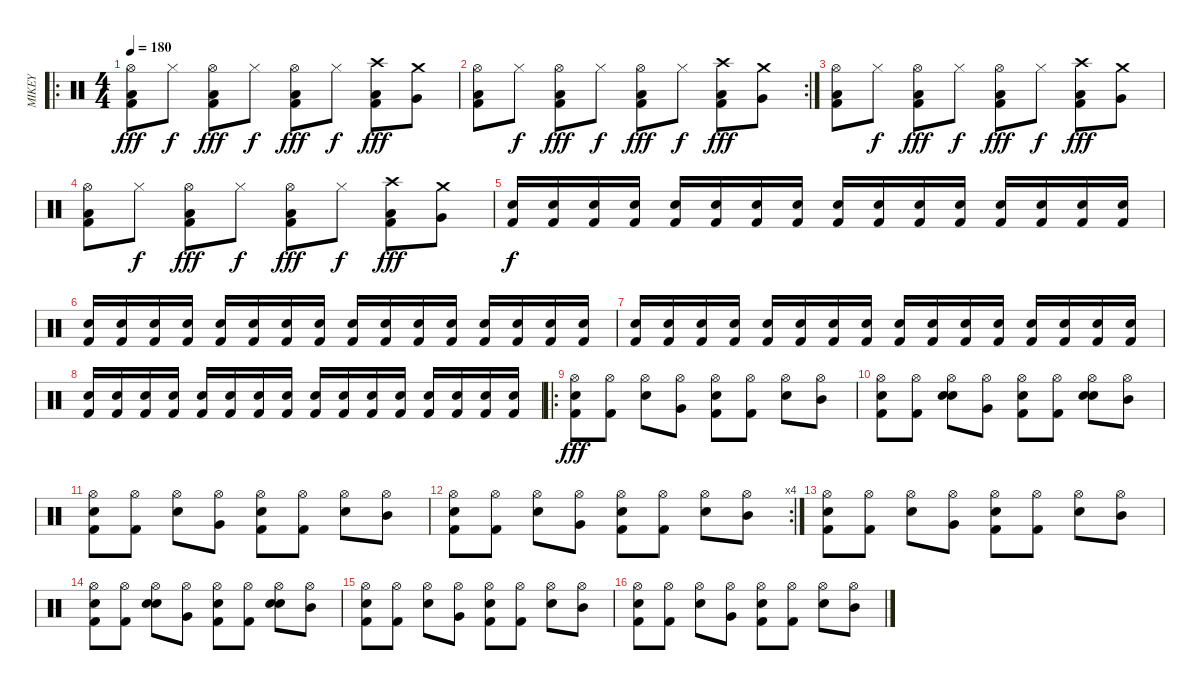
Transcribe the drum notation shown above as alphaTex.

\track ("MIKEY" "MIKEY") {instrument percussion}
\staff {score}
\articulation defaults
\ro
\ts (4 4)
\tempo 180
\clef neutral
\ks c
("Low Floor Tom (hit)" "Kick (hit) 2" "Hi-Hat (open)").8{dy fff} "Hi-Hat (closed)".8{dy f} ("Low Floor Tom (hit)" "Kick (hit) 2" "Hi-Hat (open)").8{dy fff} "Hi-Hat (closed)".8{dy f} ("Low Floor Tom (hit)" "Kick (hit) 2" "Hi-Hat (open)").8{dy fff} "Hi-Hat (closed)".8{dy f} ("Low Floor Tom (hit)" "Kick (hit) 2" "Crash high (hit)").8{dy fff} ("Very Low Tom (hit)" "Crash medium (hit)").8 |
\rc 2
("Low Floor Tom (hit)" "Kick (hit) 2" "Hi-Hat (open)").8 "Hi-Hat (closed)".8{dy f} ("Low Floor Tom (hit)" "Kick (hit) 2" "Hi-Hat (open)").8{dy fff} "Hi-Hat (closed)".8{dy f} ("Low Floor Tom (hit)" "Kick (hit) 2" "Hi-Hat (open)").8{dy fff} "Hi-Hat (closed)".8{dy f} ("Low Floor Tom (hit)" "Kick (hit) 2" "Crash high (hit)").8{dy fff} ("Very Low Tom (hit)" "Crash medium (hit)").8 |
("Low Floor Tom (hit)" "Kick (hit) 2" "Hi-Hat (open)").8 "Hi-Hat (closed)".8{dy f} ("Low Floor Tom (hit)" "Kick (hit) 2" "Hi-Hat (open)").8{dy fff} "Hi-Hat (closed)".8{dy f} ("Low Floor Tom (hit)" "Kick (hit) 2" "Hi-Hat (open)").8{dy fff} "Hi-Hat (closed)".8{dy f} ("Low Floor Tom (hit)" "Kick (hit) 2" "Crash high (hit)").8{dy fff} ("Very Low Tom (hit)" "Crash medium (hit)").8 |
("Low Floor Tom (hit)" "Kick (hit) 2" "Hi-Hat (open)").8 "Hi-Hat (closed)".8{dy f} ("Low Floor Tom (hit)" "Kick (hit) 2" "Hi-Hat (open)").8{dy fff} "Hi-Hat (closed)".8{dy f} ("Low Floor Tom (hit)" "Kick (hit) 2" "Hi-Hat (open)").8{dy fff} "Hi-Hat (closed)".8{dy f} ("Low Floor Tom (hit)" "Kick (hit) 2" "Crash high (hit)").8{dy fff} ("Very Low Tom (hit)" "Crash medium (hit)").8 |
("Kick (hit) 2" "Electric Snare (hit)").16{dy f} ("Kick (hit) 2" "Electric Snare (hit)").16 ("Kick (hit) 2" "Electric Snare (hit)").16 ("Kick (hit) 2" "Electric Snare (hit)").16 ("Kick (hit) 2" "Electric Snare (hit)").16 ("Kick (hit) 2" "Electric Snare (hit)").16 ("Kick (hit) 2" "Electric Snare (hit)").16 ("Kick (hit) 2" "Electric Snare (hit)").16 ("Kick (hit) 2" "Electric Snare (hit)").16 ("Kick (hit) 2" "Electric Snare (hit)").16 ("Kick (hit) 2" "Electric Snare (hit)").16 ("Kick (hit) 2" "Electric Snare (hit)").16 ("Kick (hit) 2" "Electric Snare (hit)").16 ("Kick (hit) 2" "Electric Snare (hit)").16 ("Kick (hit) 2" "Electric Snare (hit)").16 ("Kick (hit) 2" "Electric Snare (hit)").16 |
("Kick (hit) 2" "Electric Snare (hit)").16 ("Kick (hit) 2" "Electric Snare (hit)").16 ("Kick (hit) 2" "Electric Snare (hit)").16 ("Kick (hit) 2" "Electric Snare (hit)").16 ("Kick (hit) 2" "Electric Snare (hit)").16 ("Kick (hit) 2" "Electric Snare (hit)").16 ("Kick (hit) 2" "Electric Snare (hit)").16 ("Kick (hit) 2" "Electric Snare (hit)").16 ("Kick (hit) 2" "Electric Snare (hit)").16 ("Kick (hit) 2" "Electric Snare (hit)").16 ("Kick (hit) 2" "Electric Snare (hit)").16 ("Kick (hit) 2" "Electric Snare (hit)").16 ("Kick (hit) 2" "Electric Snare (hit)").16 ("Kick (hit) 2" "Electric Snare (hit)").16 ("Kick (hit) 2" "Electric Snare (hit)").16 ("Kick (hit) 2" "Electric Snare (hit)").16 |
("Kick (hit) 2" "Electric Snare (hit)").16 ("Kick (hit) 2" "Electric Snare (hit)").16 ("Kick (hit) 2" "Electric Snare (hit)").16 ("Kick (hit) 2" "Electric Snare (hit)").16 ("Kick (hit) 2" "Electric Snare (hit)").16 ("Kick (hit) 2" "Electric Snare (hit)").16 ("Kick (hit) 2" "Electric Snare (hit)").16 ("Kick (hit) 2" "Electric Snare (hit)").16 ("Kick (hit) 2" "Electric Snare (hit)").16 ("Kick (hit) 2" "Electric Snare (hit)").16 ("Kick (hit) 2" "Electric Snare (hit)").16 ("Kick (hit) 2" "Electric Snare (hit)").16 ("Kick (hit) 2" "Electric Snare (hit)").16 ("Kick (hit) 2" "Electric Snare (hit)").16 ("Kick (hit) 2" "Electric Snare (hit)").16 ("Kick (hit) 2" "Electric Snare (hit)").16 |
("Kick (hit) 2" "Electric Snare (hit)").16 ("Kick (hit) 2" "Electric Snare (hit)").16 ("Kick (hit) 2" "Electric Snare (hit)").16 ("Kick (hit) 2" "Electric Snare (hit)").16 ("Kick (hit) 2" "Electric Snare (hit)").16 ("Kick (hit) 2" "Electric Snare (hit)").16 ("Kick (hit) 2" "Electric Snare (hit)").16 ("Kick (hit) 2" "Electric Snare (hit)").16 ("Kick (hit) 2" "Electric Snare (hit)").16 ("Kick (hit) 2" "Electric Snare (hit)").16 ("Kick (hit) 2" "Electric Snare (hit)").16 ("Kick (hit) 2" "Electric Snare (hit)").16 ("Kick (hit) 2" "Electric Snare (hit)").16 ("Kick (hit) 2" "Electric Snare (hit)").16 ("Kick (hit) 2" "Electric Snare (hit)").16 ("Kick (hit) 2" "Electric Snare (hit)").16 |
\ro
("Electric Snare (hit)" "Hi-Hat (open)" "Kick (hit) 2").8{dy fff} ("Hi-Hat (open)" "Kick (hit) 2").8 ("Hi-Hat (open)" "Snare (hit) 2").8 ("Hi-Hat (open)" "Very Low Tom (hit)").8 ("Electric Snare (hit)" "Hi-Hat (open)" "Kick (hit) 2").8 ("Hi-Hat (open)" "Kick (hit) 2").8 ("Hi-Hat (open)" "Snare (hit) 2").8 ("Hi-Hat (open)" "Mid Tom (hit)").8 |
("Electric Snare (hit)" "Hi-Hat (open)" "Kick (hit) 2").8 ("Hi-Hat (open)" "Kick (hit) 2").8 ("Electric Snare (hit)" "Hi-Hat (open)" "Snare (hit) 2").8 ("Hi-Hat (open)" "Very Low Tom (hit)").8 ("Electric Snare (hit)" "Hi-Hat (open)" "Kick (hit) 2").8 ("Hi-Hat (open)" "Kick (hit) 2").8 ("Electric Snare (hit)" "Hi-Hat (open)" "Snare (hit) 2").8 ("Hi-Hat (open)" "Mid Tom (hit)").8 |
("Electric Snare (hit)" "Hi-Hat (open)" "Kick (hit) 2").8 ("Hi-Hat (open)" "Kick (hit) 2").8 ("Hi-Hat (open)" "Snare (hit) 2").8 ("Hi-Hat (open)" "Very Low Tom (hit)").8 ("Electric Snare (hit)" "Hi-Hat (open)" "Kick (hit) 2").8 ("Hi-Hat (open)" "Kick (hit) 2").8 ("Hi-Hat (open)" "Snare (hit) 2").8 ("Hi-Hat (open)" "Mid Tom (hit)").8 |
\rc 4
("Electric Snare (hit)" "Hi-Hat (open)" "Kick (hit) 2").8 ("Hi-Hat (open)" "Kick (hit) 2").8 ("Hi-Hat (open)" "Snare (hit) 2").8 ("Hi-Hat (open)" "Very Low Tom (hit)").8 ("Electric Snare (hit)" "Hi-Hat (open)" "Kick (hit) 2").8 ("Hi-Hat (open)" "Kick (hit) 2").8 ("Hi-Hat (open)" "Snare (hit) 2").8 ("Hi-Hat (open)" "Mid Tom (hit)").8 |
("Electric Snare (hit)" "Hi-Hat (open)" "Kick (hit) 2").8 ("Hi-Hat (open)" "Kick (hit) 2").8 ("Hi-Hat (open)" "Snare (hit) 2").8 ("Hi-Hat (open)" "Very Low Tom (hit)").8 ("Electric Snare (hit)" "Hi-Hat (open)" "Kick (hit) 2").8 ("Hi-Hat (open)" "Kick (hit) 2").8 ("Hi-Hat (open)" "Snare (hit) 2").8 ("Hi-Hat (open)" "Mid Tom (hit)").8 |
("Electric Snare (hit)" "Hi-Hat (open)" "Kick (hit) 2").8 ("Hi-Hat (open)" "Kick (hit) 2").8 ("Electric Snare (hit)" "Hi-Hat (open)" "Snare (hit) 2").8 ("Hi-Hat (open)" "Very Low Tom (hit)").8 ("Electric Snare (hit)" "Hi-Hat (open)" "Kick (hit) 2").8 ("Hi-Hat (open)" "Kick (hit) 2").8 ("Electric Snare (hit)" "Hi-Hat (open)" "Snare (hit) 2").8 ("Hi-Hat (open)" "Mid Tom (hit)").8 |
("Electric Snare (hit)" "Hi-Hat (open)" "Kick (hit) 2").8 ("Hi-Hat (open)" "Kick (hit) 2").8 ("Hi-Hat (open)" "Snare (hit) 2").8 ("Hi-Hat (open)" "Very Low Tom (hit)").8 ("Electric Snare (hit)" "Hi-Hat (open)" "Kick (hit) 2").8 ("Hi-Hat (open)" "Kick (hit) 2").8 ("Hi-Hat (open)" "Snare (hit) 2").8 ("Hi-Hat (open)" "Mid Tom (hit)").8 |
("Electric Snare (hit)" "Hi-Hat (open)" "Kick (hit) 2").8 ("Hi-Hat (open)" "Kick (hit) 2").8 ("Hi-Hat (open)" "Snare (hit) 2").8 ("Hi-Hat (open)" "Very Low Tom (hit)").8 ("Electric Snare (hit)" "Hi-Hat (open)" "Kick (hit) 2").8 ("Hi-Hat (open)" "Kick (hit) 2").8 ("Hi-Hat (open)" "Snare (hit) 2").8 ("Hi-Hat (open)" "Mid Tom (hit)").8
